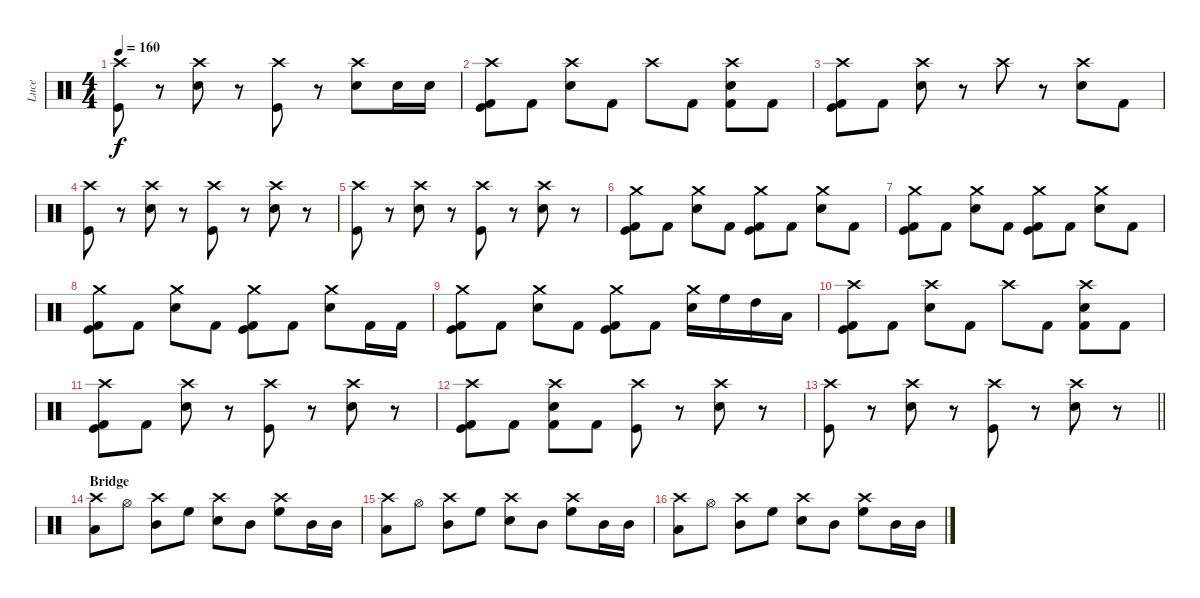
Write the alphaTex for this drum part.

\track ("Luce" "Luce") {instrument percussion}
\staff {score}
\articulation defaults
\ts (4 4)
\tempo 160
\clef neutral
\ks c
("Crash high (hit)" "Kick (hit)").8{dy f} r.8 ("Crash high (hit)" "Snare (hit) 2").8 r.8 ("Crash high (hit)" "Kick (hit)").8 r.8 ("Crash high (hit)" "Snare (hit) 2").8 "Snare (hit) 2".16 "Snare (hit) 2".16 |
("Crash high (hit)" "Kick (hit) 2" "Kick (hit)").8 "Kick (hit) 2".8 ("Crash high (hit)" "Snare (hit) 2").8 "Kick (hit) 2".8 "Crash high (hit)".8 "Kick (hit) 2".8 ("Crash high (hit)" "Kick (hit) 2" "Snare (hit) 2").8 "Kick (hit) 2".8 |
("Crash high (hit)" "Kick (hit) 2" "Kick (hit)").8 "Kick (hit) 2".8 ("Crash high (hit)" "Snare (hit) 2").8 r.8 "Crash high (hit)".8 r.8 ("Crash high (hit)" "Snare (hit) 2").8 "Kick (hit) 2".8 |
("Crash high (hit)" "Kick (hit)").8 r.8 ("Crash high (hit)" "Snare (hit) 2").8 r.8 ("Crash high (hit)" "Kick (hit)").8 r.8 ("Crash high (hit)" "Snare (hit) 2").8 r.8 |
("Crash high (hit)" "Kick (hit)").8 r.8 ("Crash high (hit)" "Snare (hit) 2").8 r.8 ("Crash high (hit)" "Kick (hit)").8 r.8 ("Crash high (hit)" "Snare (hit) 2").8 r.8 |
("Crash medium (hit)" "Kick (hit) 2" "Kick (hit)").8 "Kick (hit) 2".8 ("Crash medium (hit)" "Snare (hit) 2").8 "Kick (hit) 2".8 ("Crash medium (hit)" "Kick (hit) 2" "Kick (hit)").8 "Kick (hit) 2".8 ("Crash medium (hit)" "Snare (hit) 2").8 "Kick (hit) 2".8 |
("Crash medium (hit)" "Kick (hit) 2" "Kick (hit)").8 "Kick (hit) 2".8 ("Crash medium (hit)" "Snare (hit) 2").8 "Kick (hit) 2".8 ("Crash medium (hit)" "Kick (hit) 2" "Kick (hit)").8 "Kick (hit) 2".8 ("Crash medium (hit)" "Snare (hit) 2").8 "Kick (hit) 2".8 |
("Crash medium (hit)" "Kick (hit) 2" "Kick (hit)").8 "Kick (hit) 2".8 ("Crash medium (hit)" "Snare (hit) 2").8 "Kick (hit) 2".8 ("Crash medium (hit)" "Kick (hit) 2" "Kick (hit)").8 "Kick (hit) 2".8 ("Crash medium (hit)" "Snare (hit) 2").8 "Kick (hit) 2".16 "Kick (hit) 2".16 |
("Crash medium (hit)" "Kick (hit) 2" "Kick (hit)").8 "Kick (hit) 2".8 ("Crash medium (hit)" "Snare (hit) 2").8 "Kick (hit) 2".8 ("Crash medium (hit)" "Kick (hit) 2" "Kick (hit)").8 "Kick (hit) 2".8 ("Crash medium (hit)" "Snare (hit) 2").16 "High Floor Tom (hit)".16 "High Tom (hit)".16 "Low Tom (hit)".16 |
("Crash high (hit)" "Kick (hit) 2" "Kick (hit)").8 "Kick (hit) 2".8 ("Crash high (hit)" "Snare (hit) 2").8 "Kick (hit) 2".8 "Crash high (hit)".8 "Kick (hit) 2".8 ("Crash high (hit)" "Kick (hit) 2" "Snare (hit) 2").8 "Kick (hit) 2".8 |
("Crash high (hit)" "Kick (hit) 2" "Kick (hit)").8 "Kick (hit) 2".8 ("Crash high (hit)" "Snare (hit) 2").8 r.8 ("Crash high (hit)" "Kick (hit)").8 r.8 ("Crash high (hit)" "Snare (hit) 2").8 r.8 |
("Crash high (hit)" "Kick (hit) 2" "Kick (hit)").8 "Kick (hit) 2".8 ("Crash high (hit)" "Kick (hit) 2" "Snare (hit) 2").8 "Kick (hit) 2".8 ("Crash high (hit)" "Kick (hit)").8 r.8 ("Crash high (hit)" "Snare (hit) 2").8 r.8 |
\barLineRight lightlight
("Crash high (hit)" "Kick (hit)").8 r.8 ("Crash high (hit)" "Snare (hit) 2").8 r.8 ("Crash high (hit)" "Kick (hit)").8 r.8 ("Crash high (hit)" "Snare (hit) 2").8 r.8 |
\section ("" "Bridge")
("Crash high (hit)" "Low Tom (hit)").8 "Hi-Hat (open)".8 ("Crash high (hit)" "Mid Tom (hit)").8 "High Floor Tom (hit)".8 ("Crash high (hit)" "Electric Snare (hit)").8 "Mid Tom (hit)".8 ("Crash high (hit)" "High Floor Tom (hit)").8 "Mid Tom (hit)".16 "Mid Tom (hit)".16 |
("Crash high (hit)" "Low Tom (hit)").8 "Hi-Hat (open)".8 ("Crash high (hit)" "Mid Tom (hit)").8 "High Floor Tom (hit)".8 ("Crash high (hit)" "Electric Snare (hit)").8 "Mid Tom (hit)".8 ("Crash high (hit)" "High Floor Tom (hit)").8 "Mid Tom (hit)".16 "Mid Tom (hit)".16 |
("Crash high (hit)" "Low Tom (hit)").8 "Hi-Hat (open)".8 ("Crash high (hit)" "Mid Tom (hit)").8 "High Floor Tom (hit)".8 ("Crash high (hit)" "Electric Snare (hit)").8 "Mid Tom (hit)".8 ("Crash high (hit)" "High Floor Tom (hit)").8 "Mid Tom (hit)".16 "Mid Tom (hit)".16
